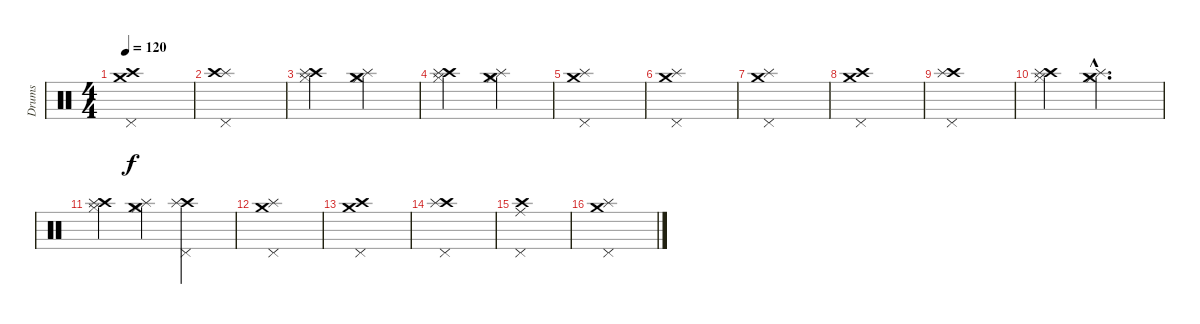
\track ("Drums" "Drums") {instrument percussion}
\staff {score}
\articulation defaults
\ts (4 4)
\tempo 120
\clef neutral
\ks c
("Crash high (hit)" "Crash medium (hit)" "Pedal Hi-Hat (hit)").1{dy f} |
("Splash (hit)" "Crash high (hit)" "Pedal Hi-Hat (hit)").1 |
("Crash high (hit)" "Splash (hit)" "Hi-Hat (closed)").2 ("Crash medium (hit)" "Splash (hit)" "Hi-Hat (closed)").2 |
("Crash high (hit)" "Splash (hit)" "Hi-Hat (closed)").2 ("Crash medium (hit)" "Splash (hit)" "Hi-Hat (closed)").2 |
("Crash medium (hit)" "Splash (hit)" "Pedal Hi-Hat (hit)").1 |
("Crash medium (hit)" "Splash (hit)" "Pedal Hi-Hat (hit)").1 |
("Crash medium (hit)" "Splash (hit)" "Pedal Hi-Hat (hit)").1 |
("Crash high (hit)" "Crash medium (hit)" "Pedal Hi-Hat (hit)").1 |
("Crash high (hit)" "Splash (hit)" "Pedal Hi-Hat (hit)").1 |
("Crash high (hit)" "Splash (hit)" "Hi-Hat (closed)").4 ("Crash medium (hit)"{hac} "Splash (hit)"{hac} "Hi-Hat (closed)"{hac}).2{d} |
("Crash high (hit)" "Splash (hit)" "Hi-Hat (closed)").4 ("Crash medium (hit)" "Splash (hit)" "Hi-Hat (closed)").4 ("Crash high (hit)" "Splash (hit)" "Pedal Hi-Hat (hit)").2 |
("Crash medium (hit)" "Splash (hit)" "Pedal Hi-Hat (hit)").1 |
("Crash high (hit)" "Crash medium (hit)" "Pedal Hi-Hat (hit)").1 |
("Crash high (hit)" "Splash (hit)" "Pedal Hi-Hat (hit)").1 |
("Crash high (hit)" "Ride (middle)" "Pedal Hi-Hat (hit)").1 |
("Crash medium (hit)" "Splash (hit)" "Pedal Hi-Hat (hit)").1
